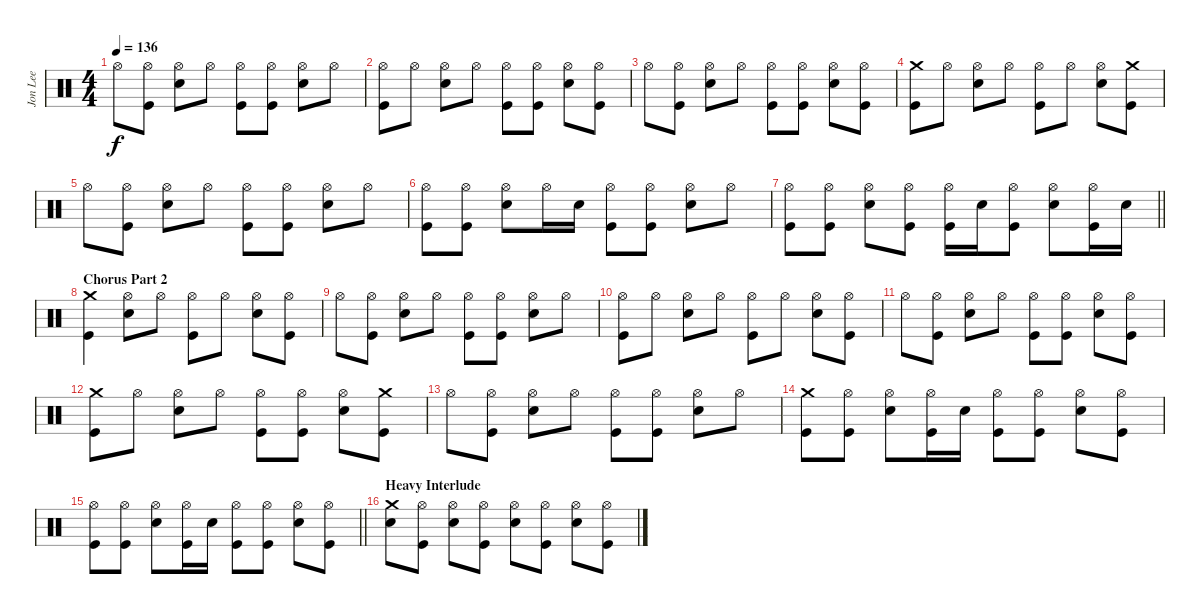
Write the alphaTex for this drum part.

\track ("Jon Lee" "Jon Lee") {instrument percussion}
\staff {score}
\articulation defaults
\ts (4 4)
\tempo 136
\clef neutral
\ks c "Hi-Hat (open)".8{dy f}
("Hi-Hat (open)" "Kick (hit)").8 ("Hi-Hat (open)" "Electric Snare (hit)").8 "Hi-Hat (open)".8 ("Hi-Hat (open)" "Kick (hit)").8 ("Hi-Hat (open)" "Kick (hit)").8 ("Hi-Hat (open)" "Electric Snare (hit)").8 "Hi-Hat (open)".8 |
("Hi-Hat (open)" "Kick (hit)").8 "Hi-Hat (open)".8 ("Hi-Hat (open)" "Electric Snare (hit)").8 "Hi-Hat (open)".8 ("Hi-Hat (open)" "Kick (hit)").8 ("Hi-Hat (open)" "Kick (hit)").8 ("Hi-Hat (open)" "Electric Snare (hit)").8 ("Hi-Hat (open)" "Kick (hit)").8 |
"Hi-Hat (open)".8 ("Hi-Hat (open)" "Kick (hit)").8 ("Hi-Hat (open)" "Electric Snare (hit)").8 "Hi-Hat (open)".8 ("Hi-Hat (open)" "Kick (hit)").8 ("Hi-Hat (open)" "Kick (hit)").8 ("Hi-Hat (open)" "Electric Snare (hit)").8 ("Hi-Hat (open)" "Kick (hit)").8 |
("Crash medium (hit)" "Kick (hit)").8 "Hi-Hat (open)".8 ("Hi-Hat (open)" "Electric Snare (hit)").8 "Hi-Hat (open)".8 ("Hi-Hat (open)" "Kick (hit)").8 "Hi-Hat (open)".8 ("Hi-Hat (open)" "Electric Snare (hit)").8 ("Crash medium (hit)" "Kick (hit)").8 |
"Hi-Hat (open)".8 ("Hi-Hat (open)" "Kick (hit)").8 ("Hi-Hat (open)" "Electric Snare (hit)").8 "Hi-Hat (open)".8 ("Hi-Hat (open)" "Kick (hit)").8 ("Hi-Hat (open)" "Kick (hit)").8 ("Hi-Hat (open)" "Electric Snare (hit)").8 "Hi-Hat (open)".8 |
("Hi-Hat (open)" "Kick (hit)").8 ("Hi-Hat (open)" "Kick (hit)").8 ("Hi-Hat (open)" "Electric Snare (hit)").8 "Hi-Hat (open)".16 "Electric Snare (hit)".16 ("Hi-Hat (open)" "Kick (hit)").8 ("Hi-Hat (open)" "Kick (hit)").8 ("Hi-Hat (open)" "Electric Snare (hit)").8 "Hi-Hat (open)".8 |
\barLineRight lightlight
("Hi-Hat (open)" "Kick (hit)").8 ("Hi-Hat (open)" "Kick (hit)").8 ("Hi-Hat (open)" "Electric Snare (hit)").8 ("Hi-Hat (open)" "Kick (hit)").8 ("Hi-Hat (open)" "Kick (hit)").16 "Electric Snare (hit)".16 ("Hi-Hat (open)" "Kick (hit)").8 ("Hi-Hat (open)" "Electric Snare (hit)").8 ("Hi-Hat (open)" "Kick (hit)").16 "Electric Snare (hit)".16 |
\section ("" "Chorus Part 2")
("Crash medium (hit)" "Kick (hit)").4 ("Hi-Hat (open)" "Electric Snare (hit)").8 "Hi-Hat (open)".8 ("Hi-Hat (open)" "Kick (hit)").8 "Hi-Hat (open)".8 ("Hi-Hat (open)" "Electric Snare (hit)").8 ("Hi-Hat (open)" "Kick (hit)").8 |
"Hi-Hat (open)".8 ("Hi-Hat (open)" "Kick (hit)").8 ("Hi-Hat (open)" "Electric Snare (hit)").8 "Hi-Hat (open)".8 ("Hi-Hat (open)" "Kick (hit)").8 ("Hi-Hat (open)" "Kick (hit)").8 ("Hi-Hat (open)" "Electric Snare (hit)").8 "Hi-Hat (open)".8 |
("Hi-Hat (open)" "Kick (hit)").8 "Hi-Hat (open)".8 ("Hi-Hat (open)" "Electric Snare (hit)").8 "Hi-Hat (open)".8 ("Hi-Hat (open)" "Kick (hit)").8 "Hi-Hat (open)".8 ("Hi-Hat (open)" "Electric Snare (hit)").8 ("Hi-Hat (open)" "Kick (hit)").8 |
"Hi-Hat (open)".8 ("Hi-Hat (open)" "Kick (hit)").8 ("Hi-Hat (open)" "Electric Snare (hit)").8 "Hi-Hat (open)".8 ("Hi-Hat (open)" "Kick (hit)").8 ("Hi-Hat (open)" "Kick (hit)").8 ("Hi-Hat (open)" "Electric Snare (hit)").8 ("Hi-Hat (open)" "Kick (hit)").8 |
("Crash medium (hit)" "Kick (hit)").8 "Hi-Hat (open)".8 ("Hi-Hat (open)" "Electric Snare (hit)").8 "Hi-Hat (open)".8 ("Hi-Hat (open)" "Kick (hit)").8 ("Hi-Hat (open)" "Kick (hit)").8 ("Hi-Hat (open)" "Electric Snare (hit)").8 ("Crash medium (hit)" "Kick (hit)").8 |
"Hi-Hat (open)".8 ("Hi-Hat (open)" "Kick (hit)").8 ("Hi-Hat (open)" "Electric Snare (hit)").8 "Hi-Hat (open)".8 ("Hi-Hat (open)" "Kick (hit)").8 ("Hi-Hat (open)" "Kick (hit)").8 ("Hi-Hat (open)" "Electric Snare (hit)").8 "Hi-Hat (open)".8 |
("Crash medium (hit)" "Kick (hit)").8 ("Hi-Hat (open)" "Kick (hit)").8 ("Hi-Hat (open)" "Electric Snare (hit)").8 ("Hi-Hat (open)" "Kick (hit)").16 "Electric Snare (hit)".16 ("Hi-Hat (open)" "Kick (hit)").8 ("Hi-Hat (open)" "Kick (hit)").8 ("Hi-Hat (open)" "Electric Snare (hit)").8 ("Hi-Hat (open)" "Kick (hit)").8 |
\barLineRight lightlight
("Hi-Hat (open)" "Kick (hit)").8 ("Hi-Hat (open)" "Kick (hit)").8 ("Hi-Hat (open)" "Electric Snare (hit)").8 ("Hi-Hat (open)" "Kick (hit)").16 "Electric Snare (hit)".16 ("Hi-Hat (open)" "Kick (hit)").8 ("Hi-Hat (open)" "Kick (hit)").8 ("Hi-Hat (open)" "Electric Snare (hit)").8 ("Hi-Hat (open)" "Kick (hit)").8 |
\section ("" "Heavy Interlude")
("Crash medium (hit)" "Electric Snare (hit)").8 ("Hi-Hat (open)" "Kick (hit)").8 ("Hi-Hat (open)" "Electric Snare (hit)").8 ("Hi-Hat (open)" "Kick (hit)").8 ("Hi-Hat (open)" "Electric Snare (hit)").8 ("Hi-Hat (open)" "Kick (hit)").8 ("Hi-Hat (open)" "Electric Snare (hit)").8 ("Hi-Hat (open)" "Kick (hit)").8
